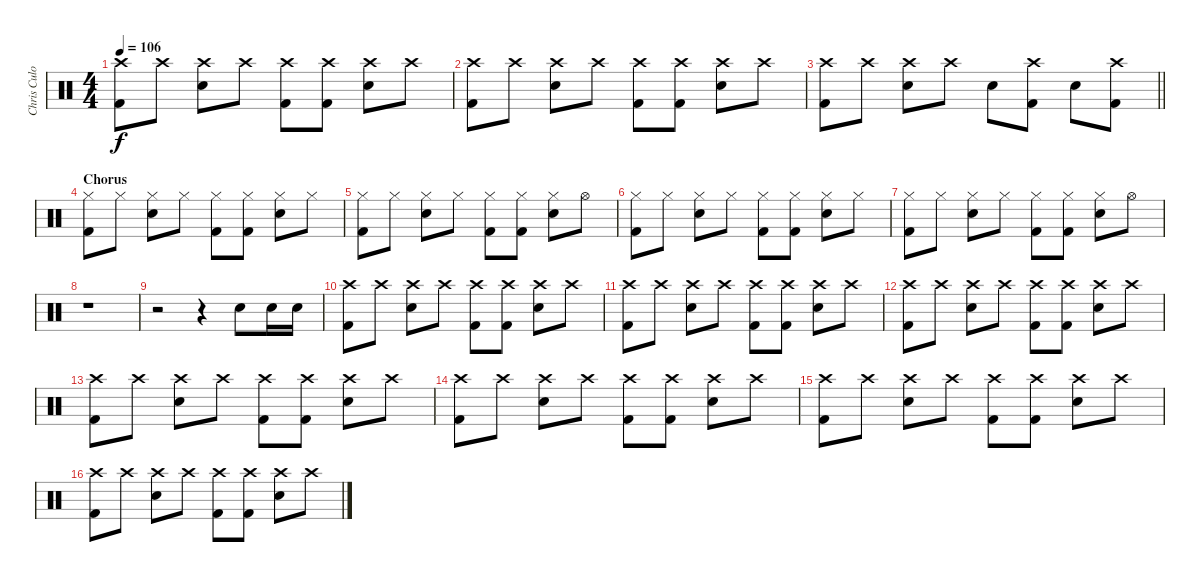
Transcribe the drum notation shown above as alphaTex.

\track ("Chris Culos" "Chris Culo") {instrument percussion}
\staff {score}
\articulation defaults
\ts (4 4)
\tempo 106
\clef neutral
\ks c
("Crash high (hit)" "Kick (hit) 2").8{dy f} "Crash high (hit)".8 ("Crash high (hit)" "Snare (hit) 2").8 "Crash high (hit)".8 ("Crash high (hit)" "Kick (hit) 2").8 ("Crash high (hit)" "Kick (hit) 2").8 ("Crash high (hit)" "Snare (hit) 2").8 "Crash high (hit)".8 |
("Crash high (hit)" "Kick (hit) 2").8 "Crash high (hit)".8 ("Crash high (hit)" "Snare (hit) 2").8 "Crash high (hit)".8 ("Crash high (hit)" "Kick (hit) 2").8 ("Crash high (hit)" "Kick (hit) 2").8 ("Crash high (hit)" "Snare (hit) 2").8 "Crash high (hit)".8 |
\barLineRight lightlight
("Crash high (hit)" "Kick (hit) 2").8 "Crash high (hit)".8 ("Crash high (hit)" "Snare (hit) 2").8 "Crash high (hit)".8 "Snare (hit) 2".8 ("Crash high (hit)" "Kick (hit) 2").8 "Snare (hit) 2".8 ("Crash high (hit)" "Kick (hit) 2").8 |
\section ("" "Chorus")
("Hi-Hat (closed)" "Kick (hit) 2").8 "Hi-Hat (closed)".8 ("Hi-Hat (closed)" "Snare (hit) 2").8 "Hi-Hat (closed)".8 ("Hi-Hat (closed)" "Kick (hit) 2").8 ("Hi-Hat (closed)" "Kick (hit) 2").8 ("Hi-Hat (closed)" "Snare (hit) 2").8 "Hi-Hat (closed)".8 |
("Hi-Hat (closed)" "Kick (hit) 2").8 "Hi-Hat (closed)".8 ("Hi-Hat (closed)" "Snare (hit) 2").8 "Hi-Hat (closed)".8 ("Hi-Hat (closed)" "Kick (hit) 2").8 ("Hi-Hat (closed)" "Kick (hit) 2").8 ("Hi-Hat (closed)" "Snare (hit) 2").8 "Hi-Hat (open)".8 |
("Hi-Hat (closed)" "Kick (hit) 2").8 "Hi-Hat (closed)".8 ("Hi-Hat (closed)" "Snare (hit) 2").8 "Hi-Hat (closed)".8 ("Hi-Hat (closed)" "Kick (hit) 2").8 ("Hi-Hat (closed)" "Kick (hit) 2").8 ("Hi-Hat (closed)" "Snare (hit) 2").8 "Hi-Hat (closed)".8 |
("Hi-Hat (closed)" "Kick (hit) 2").8 "Hi-Hat (closed)".8 ("Hi-Hat (closed)" "Snare (hit) 2").8 "Hi-Hat (closed)".8 ("Hi-Hat (closed)" "Kick (hit) 2").8 ("Hi-Hat (closed)" "Kick (hit) 2").8 ("Hi-Hat (closed)" "Snare (hit) 2").8 "Hi-Hat (open)".8 |
r.1 |
r.2 r.4 "Snare (hit) 2".8 "Snare (hit) 2".16 "Snare (hit) 2".16 |
("Crash high (hit)" "Kick (hit) 2").8 "Crash high (hit)".8 ("Crash high (hit)" "Snare (hit) 2").8 "Crash high (hit)".8 ("Crash high (hit)" "Kick (hit) 2").8 ("Crash high (hit)" "Kick (hit) 2").8 ("Crash high (hit)" "Snare (hit) 2").8 "Crash high (hit)".8 |
("Crash high (hit)" "Kick (hit) 2").8 "Crash high (hit)".8 ("Crash high (hit)" "Snare (hit) 2").8 "Crash high (hit)".8 ("Crash high (hit)" "Kick (hit) 2").8 ("Crash high (hit)" "Kick (hit) 2").8 ("Crash high (hit)" "Snare (hit) 2").8 "Crash high (hit)".8 |
("Crash high (hit)" "Kick (hit) 2").8 "Crash high (hit)".8 ("Crash high (hit)" "Snare (hit) 2").8 "Crash high (hit)".8 ("Crash high (hit)" "Kick (hit) 2").8 ("Crash high (hit)" "Kick (hit) 2").8 ("Crash high (hit)" "Snare (hit) 2").8 "Crash high (hit)".8 |
("Crash high (hit)" "Kick (hit) 2").8 "Crash high (hit)".8 ("Crash high (hit)" "Snare (hit) 2").8 "Crash high (hit)".8 ("Crash high (hit)" "Kick (hit) 2").8 ("Crash high (hit)" "Kick (hit) 2").8 ("Crash high (hit)" "Snare (hit) 2").8 "Crash high (hit)".8 |
("Crash high (hit)" "Kick (hit) 2").8 "Crash high (hit)".8 ("Crash high (hit)" "Snare (hit) 2").8 "Crash high (hit)".8 ("Crash high (hit)" "Kick (hit) 2").8 ("Crash high (hit)" "Kick (hit) 2").8 ("Crash high (hit)" "Snare (hit) 2").8 "Crash high (hit)".8 |
("Crash high (hit)" "Kick (hit) 2").8 "Crash high (hit)".8 ("Crash high (hit)" "Snare (hit) 2").8 "Crash high (hit)".8 ("Crash high (hit)" "Kick (hit) 2").8 ("Crash high (hit)" "Kick (hit) 2").8 ("Crash high (hit)" "Snare (hit) 2").8 "Crash high (hit)".8 |
("Crash high (hit)" "Kick (hit) 2").8 "Crash high (hit)".8 ("Crash high (hit)" "Snare (hit) 2").8 "Crash high (hit)".8 ("Crash high (hit)" "Kick (hit) 2").8 ("Crash high (hit)" "Kick (hit) 2").8 ("Crash high (hit)" "Snare (hit) 2").8 "Crash high (hit)".8
